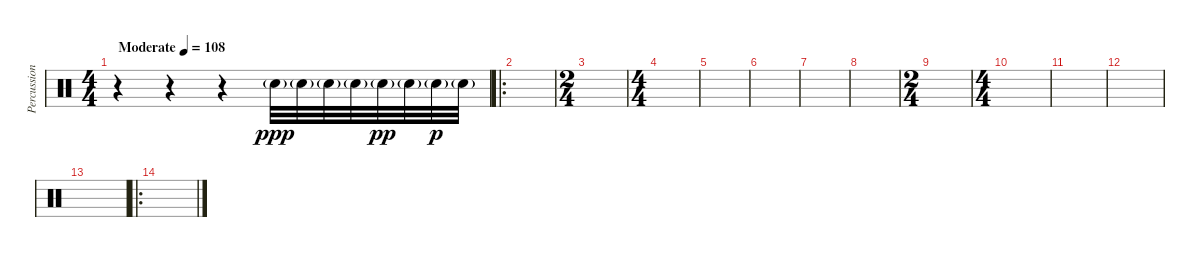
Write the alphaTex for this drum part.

\track ("Percussion" "Percussion") {instrument percussion}
\staff {score}
\articulation defaults
\ts (4 4)
\tempo (108 "Moderate")
\clef neutral
\ks c
r.4{dy ppp} r.4 r.4 "Electric Snare (hit)"{g}.32 "Electric Snare (hit)"{g}.32 "Electric Snare (hit)"{g}.32 "Electric Snare (hit)"{g}.32 "Electric Snare (hit)"{g}.32{dy pp} "Electric Snare (hit)"{g}.32 "Electric Snare (hit)"{g}.32{dy p} "Electric Snare (hit)"{g}.32 |
\ro
|
\ts (2 4)
|
\ts (4 4)
|
|
|
|
|
\ts (2 4)
|
\ts (4 4)
|
|
|
|
\ro
